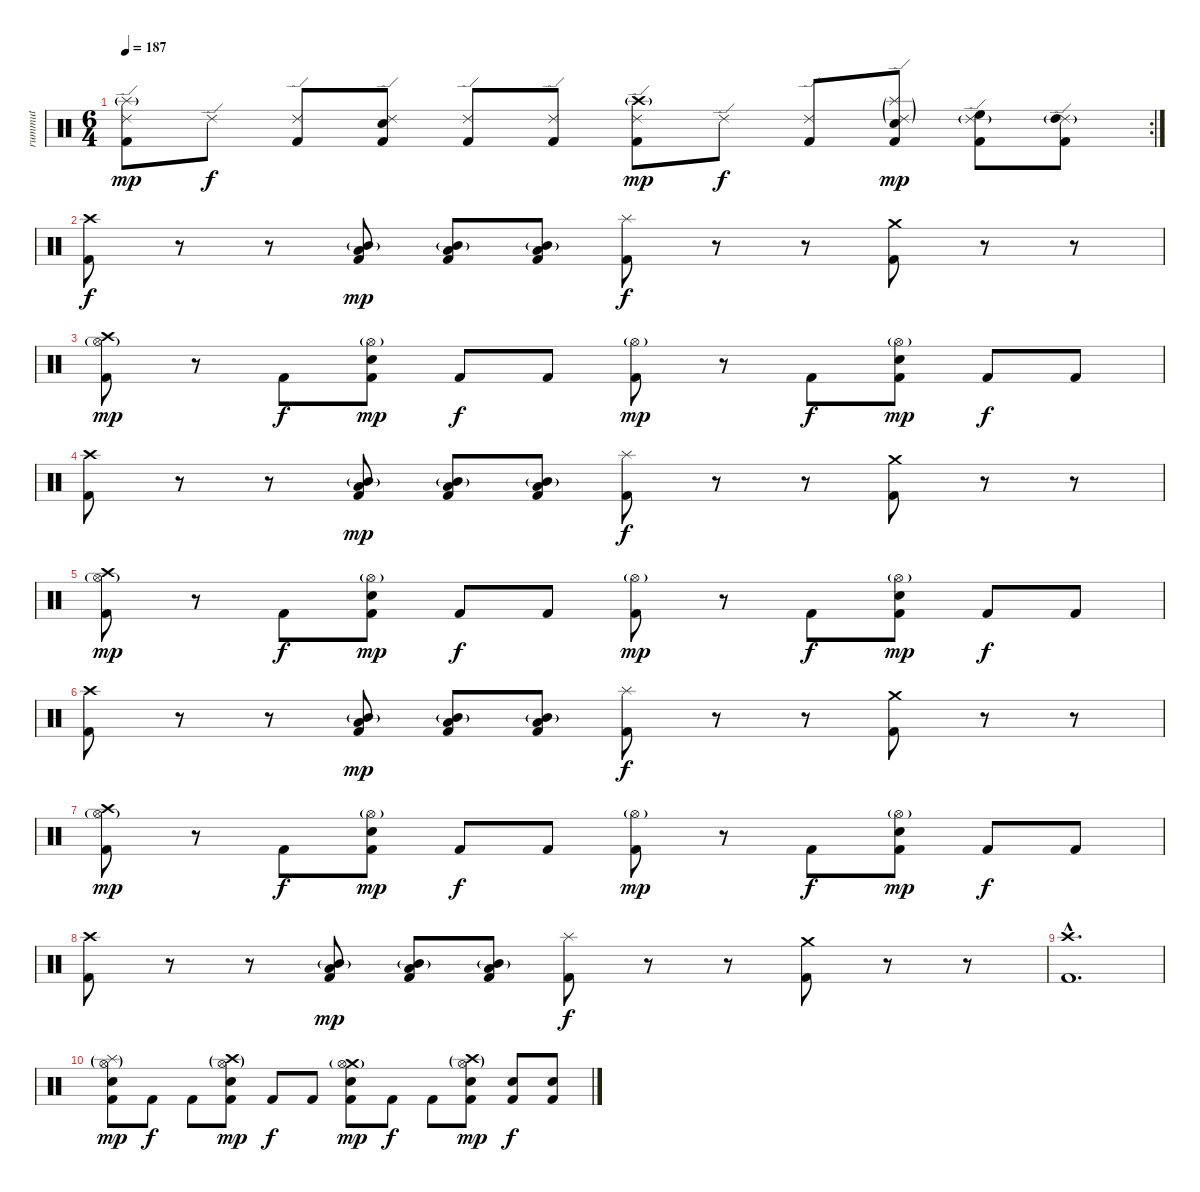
\track ("rummut" "rummut") {instrument percussion}
\staff {score}
\articulation defaults
\rc 2
\ts (6 4)
\tempo 187
\clef neutral
\ks c
("Kick (hit) 2" "Ride (edge) 2" "Splash (hit)"{g}).8{dy mp} "Ride (edge) 2".8{dy f} ("Kick (hit) 2" "Ride (edge) 2").8 ("Kick (hit) 2" "Ride (edge) 2" "Snare (hit) 2").8 ("Kick (hit) 2" "Ride (edge) 2").8 ("Kick (hit) 2" "Ride (edge) 2").8 ("Kick (hit) 2" "Ride (edge) 2" "Crash high (hit)"{g}).8{dy mp} "Ride (edge) 2".8{dy f} ("Kick (hit) 2" "Ride (edge) 2").8 ("Kick (hit) 2" "Ride (edge) 2"{g} "Snare (hit) 2" "Splash (hit)"{g}).8{dy mp} ("Kick (hit) 2" "Ride (edge) 2"{g} "High Floor Tom (hit)").8 ("Kick (hit) 2" "Ride (edge) 2"{g} "High Tom (hit)").8 |
("Kick (hit) 2" "Crash high (hit)").8{dy f} r.8 r.8 ("Kick (hit) 2" "Low Tom (hit)" "Mid Tom (hit)"{g}).8{dy mp} ("Kick (hit) 2" "Low Tom (hit)" "Mid Tom (hit)"{g}).8 ("Kick (hit) 2" "Low Tom (hit)" "Mid Tom (hit)"{g}).8 ("Kick (hit) 2" "Splash (hit)").8{dy f} r.8 r.8 ("Kick (hit) 2" "Crash medium (hit)").8 r.8 r.8 |
("Kick (hit) 2" "Hi-Hat (open)"{g} "Crash high (hit)").8{dy mp} r.8 "Kick (hit) 2".8{dy f} ("Kick (hit) 2" "Hi-Hat (open)"{g} "Snare (hit) 2").8{dy mp} "Kick (hit) 2".8{dy f} "Kick (hit) 2".8 ("Kick (hit) 2" "Hi-Hat (open)"{g}).8{dy mp} r.8 "Kick (hit) 2".8{dy f} ("Kick (hit) 2" "Hi-Hat (open)"{g} "Snare (hit) 2").8{dy mp} "Kick (hit) 2".8{dy f} "Kick (hit) 2".8 |
("Kick (hit) 2" "Crash high (hit)").8 r.8 r.8 ("Kick (hit) 2" "Low Tom (hit)" "Mid Tom (hit)"{g}).8{dy mp} ("Kick (hit) 2" "Low Tom (hit)" "Mid Tom (hit)"{g}).8 ("Kick (hit) 2" "Low Tom (hit)" "Mid Tom (hit)"{g}).8 ("Kick (hit) 2" "Splash (hit)").8{dy f} r.8 r.8 ("Kick (hit) 2" "Crash medium (hit)").8 r.8 r.8 |
("Kick (hit) 2" "Hi-Hat (open)"{g} "Crash high (hit)").8{dy mp} r.8 "Kick (hit) 2".8{dy f} ("Kick (hit) 2" "Hi-Hat (open)"{g} "Snare (hit) 2").8{dy mp} "Kick (hit) 2".8{dy f} "Kick (hit) 2".8 ("Kick (hit) 2" "Hi-Hat (open)"{g}).8{dy mp} r.8 "Kick (hit) 2".8{dy f} ("Kick (hit) 2" "Hi-Hat (open)"{g} "Snare (hit) 2").8{dy mp} "Kick (hit) 2".8{dy f} "Kick (hit) 2".8 |
("Kick (hit) 2" "Crash high (hit)").8 r.8 r.8 ("Kick (hit) 2" "Low Tom (hit)" "Mid Tom (hit)"{g}).8{dy mp} ("Kick (hit) 2" "Low Tom (hit)" "Mid Tom (hit)"{g}).8 ("Kick (hit) 2" "Low Tom (hit)" "Mid Tom (hit)"{g}).8 ("Kick (hit) 2" "Splash (hit)").8{dy f} r.8 r.8 ("Kick (hit) 2" "Crash medium (hit)").8 r.8 r.8 |
("Kick (hit) 2" "Hi-Hat (open)"{g} "Crash high (hit)").8{dy mp} r.8 "Kick (hit) 2".8{dy f} ("Kick (hit) 2" "Hi-Hat (open)"{g} "Snare (hit) 2").8{dy mp} "Kick (hit) 2".8{dy f} "Kick (hit) 2".8 ("Kick (hit) 2" "Hi-Hat (open)"{g}).8{dy mp} r.8 "Kick (hit) 2".8{dy f} ("Kick (hit) 2" "Hi-Hat (open)"{g} "Snare (hit) 2").8{dy mp} "Kick (hit) 2".8{dy f} "Kick (hit) 2".8 |
("Kick (hit) 2" "Crash high (hit)").8 r.8 r.8 ("Kick (hit) 2" "Low Tom (hit)" "Mid Tom (hit)"{g}).8{dy mp} ("Kick (hit) 2" "Low Tom (hit)" "Mid Tom (hit)"{g}).8 ("Kick (hit) 2" "Low Tom (hit)" "Mid Tom (hit)"{g}).8 ("Kick (hit) 2" "Splash (hit)").8{dy f} r.8 r.8 ("Kick (hit) 2" "Crash medium (hit)").8 r.8 r.8 |
("Kick (hit) 2"{hac} "Crash high (hit)"{hac}).1{d} |
("Kick (hit) 2" "Snare (hit) 2" "Splash (hit)"{g} "Hi-Hat (open)"{g}).8{dy mp} "Kick (hit) 2".8{dy f} "Kick (hit) 2".8 ("Kick (hit) 2" "Snare (hit) 2" "Crash high (hit)"{g} "Hi-Hat (open)"{g}).8{dy mp} "Kick (hit) 2".8{dy f} "Kick (hit) 2".8 ("Kick (hit) 2" "Snare (hit) 2" "Crash medium (hit)"{g} "Hi-Hat (open)"{g}).8{dy mp} "Kick (hit) 2".8{dy f} "Kick (hit) 2".8 ("Kick (hit) 2" "Snare (hit) 2" "Crash high (hit)"{g} "Hi-Hat (open)"{g}).8{dy mp} ("Kick (hit) 2" "Snare (hit) 2").8{dy f} ("Kick (hit) 2" "Snare (hit) 2").8
